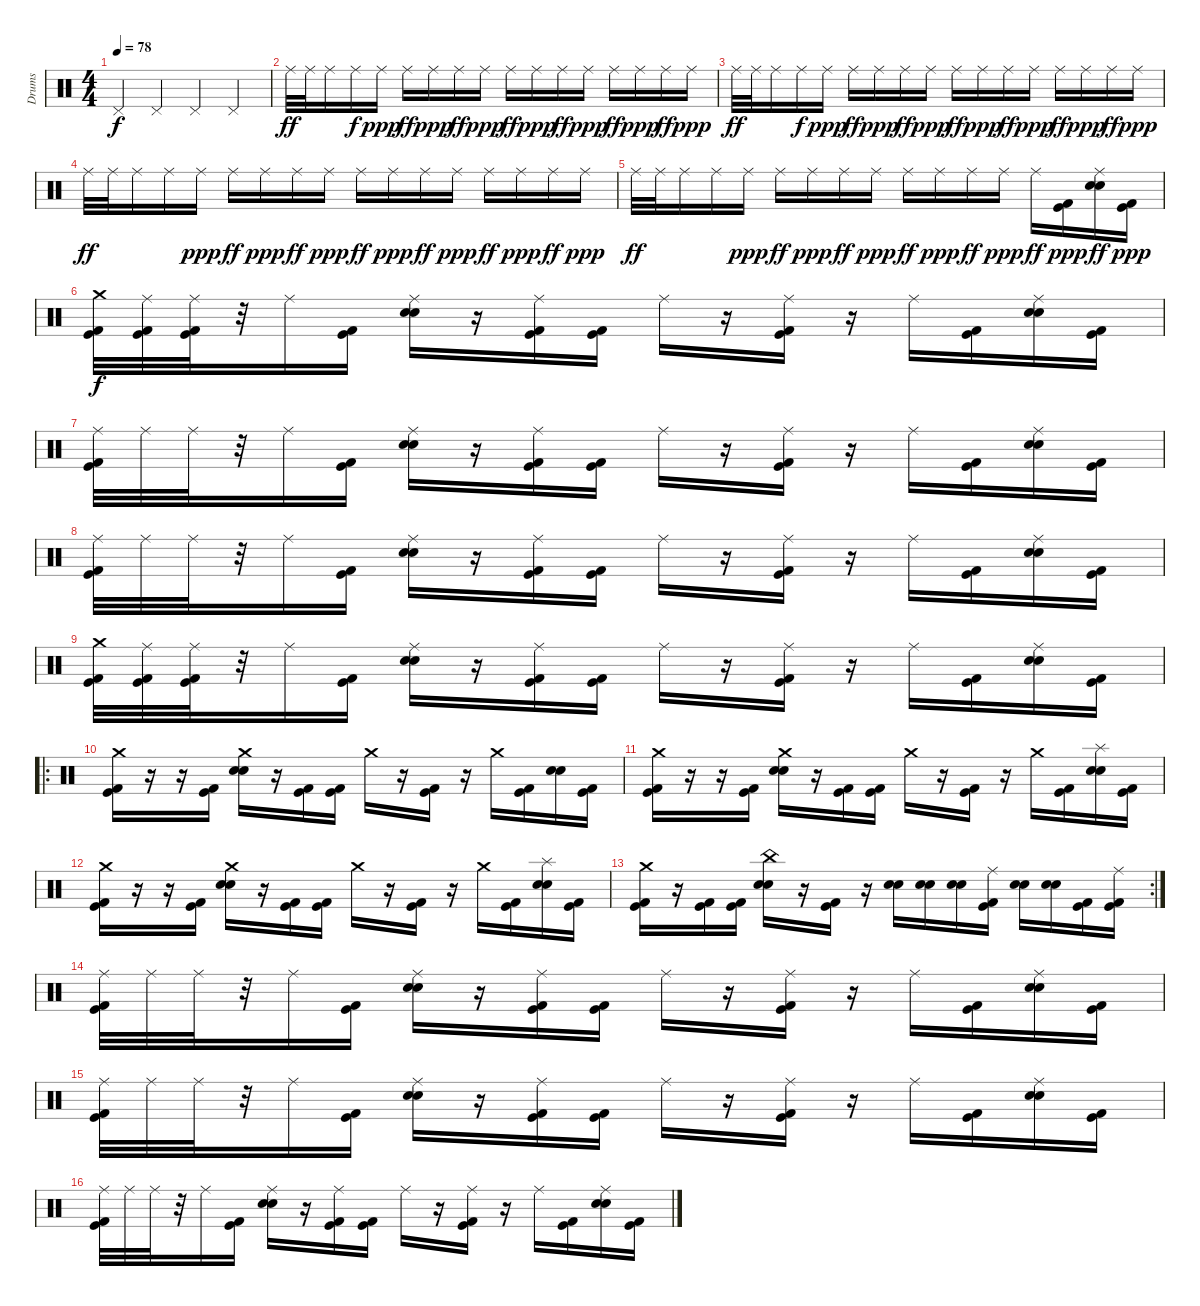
\track ("Drums" "Drums") {instrument percussion}
\staff {score}
\articulation defaults
\ts (4 4)
\tempo 78
\clef neutral
\ks c "Pedal Hi-Hat (hit)".4{dy f} "Pedal Hi-Hat (hit)".4 "Pedal Hi-Hat (hit)".4 "Pedal Hi-Hat (hit)".4
|
"Ride (middle)".32{dy ff} "Ride (middle)".32 "Ride (middle)".16 "Ride (middle)".16{dy f} "Ride (middle)".16{dy ppp} "Ride (middle)".16{dy ff} "Ride (middle)".16{dy ppp} "Ride (middle)".16{dy ff} "Ride (middle)".16{dy ppp} "Ride (middle)".16{dy ff} "Ride (middle)".16{dy ppp} "Ride (middle)".16{dy ff} "Ride (middle)".16{dy ppp} "Ride (middle)".16{dy ff} "Ride (middle)".16{dy ppp} "Ride (middle)".16{dy ff} "Ride (middle)".16{dy ppp} |
"Ride (middle)".32{dy ff} "Ride (middle)".32 "Ride (middle)".16 "Ride (middle)".16{dy f} "Ride (middle)".16{dy ppp} "Ride (middle)".16{dy ff} "Ride (middle)".16{dy ppp} "Ride (middle)".16{dy ff} "Ride (middle)".16{dy ppp} "Ride (middle)".16{dy ff} "Ride (middle)".16{dy ppp} "Ride (middle)".16{dy ff} "Ride (middle)".16{dy ppp} "Ride (middle)".16{dy ff} "Ride (middle)".16{dy ppp} "Ride (middle)".16{dy ff} "Ride (middle)".16{dy ppp} |
"Ride (middle)".32{dy ff} "Ride (middle)".32 "Ride (middle)".16 "Ride (middle)".16 "Ride (middle)".16{dy ppp} "Ride (middle)".16{dy ff} "Ride (middle)".16{dy ppp} "Ride (middle)".16{dy ff} "Ride (middle)".16{dy ppp} "Ride (middle)".16{dy ff} "Ride (middle)".16{dy ppp} "Ride (middle)".16{dy ff} "Ride (middle)".16{dy ppp} "Ride (middle)".16{dy ff} "Ride (middle)".16{dy ppp} "Ride (middle)".16{dy ff} "Ride (middle)".16{dy ppp} |
"Ride (middle)".32{dy ff} "Ride (middle)".32 "Ride (middle)".16 "Ride (middle)".16 "Ride (middle)".16{dy ppp} "Ride (middle)".16{dy ff} "Ride (middle)".16{dy ppp} "Ride (middle)".16{dy ff} "Ride (middle)".16{dy ppp} "Ride (middle)".16{dy ff} "Ride (middle)".16{dy ppp} "Ride (middle)".16{dy ff} "Ride (middle)".16{dy ppp} "Ride (middle)".16{dy ff} ("Kick (hit) 2" "Kick (hit)").16{dy ppp} ("Ride (middle)" "Snare (hit) 2" "Snare (hit) 2").16{dy ff} ("Kick (hit) 2" "Kick (hit)").16{dy ppp} |
("Crash medium (hit)" "Kick (hit)" "Kick (hit) 2").32{dy f} ("Ride (middle)" "Kick (hit)" "Kick (hit) 2").32 ("Ride (middle)" "Kick (hit)" "Kick (hit) 2").32 r.32 "Ride (middle)".16 ("Kick (hit)" "Kick (hit) 2").16 ("Ride (middle)" "Snare (hit) 2" "Snare (hit) 2").16 r.16 ("Ride (middle)" "Kick (hit)" "Kick (hit) 2").16 ("Kick (hit)" "Kick (hit) 2").16 "Ride (middle)".16 r.16 ("Ride (middle)" "Kick (hit)" "Kick (hit) 2").16 r.16 "Ride (middle)".16 ("Kick (hit)" "Kick (hit) 2").16 ("Ride (middle)" "Snare (hit) 2" "Snare (hit) 2").16 ("Kick (hit)" "Kick (hit) 2").16 |
("Ride (middle)" "Kick (hit)" "Kick (hit) 2").32 "Ride (middle)".32 "Ride (middle)".32 r.32 "Ride (middle)".16 ("Kick (hit)" "Kick (hit) 2").16 ("Ride (middle)" "Snare (hit) 2" "Snare (hit) 2").16 r.16 ("Ride (middle)" "Kick (hit)" "Kick (hit) 2").16 ("Kick (hit)" "Kick (hit) 2").16 "Ride (middle)".16 r.16 ("Ride (middle)" "Kick (hit)" "Kick (hit) 2").16 r.16 "Ride (middle)".16 ("Kick (hit)" "Kick (hit) 2").16 ("Ride (middle)" "Snare (hit) 2" "Snare (hit) 2").16 ("Kick (hit)" "Kick (hit) 2").16 |
("Ride (middle)" "Kick (hit)" "Kick (hit) 2").32 "Ride (middle)".32 "Ride (middle)".32 r.32 "Ride (middle)".16 ("Kick (hit)" "Kick (hit) 2").16 ("Ride (middle)" "Snare (hit) 2" "Snare (hit) 2").16 r.16 ("Ride (middle)" "Kick (hit)" "Kick (hit) 2").16 ("Kick (hit)" "Kick (hit) 2").16 "Ride (middle)".16 r.16 ("Ride (middle)" "Kick (hit)" "Kick (hit) 2").16 r.16 "Ride (middle)".16 ("Kick (hit)" "Kick (hit) 2").16 ("Ride (middle)" "Snare (hit) 2" "Snare (hit) 2").16 ("Kick (hit)" "Kick (hit) 2").16 |
("Crash medium (hit)" "Kick (hit)" "Kick (hit) 2").32 ("Ride (middle)" "Kick (hit)" "Kick (hit) 2").32 ("Ride (middle)" "Kick (hit)" "Kick (hit) 2").32 r.32 "Ride (middle)".16 ("Kick (hit)" "Kick (hit) 2").16 ("Ride (middle)" "Snare (hit) 2" "Snare (hit) 2").16 r.16 ("Ride (middle)" "Kick (hit)" "Kick (hit) 2").16 ("Kick (hit)" "Kick (hit) 2").16 "Ride (middle)".16 r.16 ("Ride (middle)" "Kick (hit)" "Kick (hit) 2").16 r.16 "Ride (middle)".16 ("Kick (hit)" "Kick (hit) 2").16 ("Ride (middle)" "Snare (hit) 2" "Snare (hit) 2").16 ("Kick (hit)" "Kick (hit) 2").16 |
\ro
("Crash medium (hit)" "Kick (hit)" "Kick (hit) 2").16 r.16 r.16 ("Kick (hit)" "Kick (hit) 2").16 ("Crash medium (hit)" "Snare (hit) 2" "Snare (hit) 2").16 r.16 ("Kick (hit)" "Kick (hit) 2").16 ("Kick (hit)" "Kick (hit) 2").16 "Crash medium (hit)".16 r.16 ("Kick (hit)" "Kick (hit) 2").16 r.16 "Crash medium (hit)".16 ("Kick (hit)" "Kick (hit) 2").16 ("Snare (hit) 2" "Snare (hit) 2").16 ("Kick (hit)" "Kick (hit) 2").16 |
("Crash medium (hit)" "Kick (hit)" "Kick (hit) 2").16 r.16 r.16 ("Kick (hit)" "Kick (hit) 2").16 ("Crash medium (hit)" "Snare (hit) 2" "Snare (hit) 2").16 r.16 ("Kick (hit)" "Kick (hit) 2").16 ("Kick (hit)" "Kick (hit) 2").16 "Crash medium (hit)".16 r.16 ("Kick (hit)" "Kick (hit) 2").16 r.16 "Crash medium (hit)".16 ("Kick (hit)" "Kick (hit) 2").16 ("Splash (hit)" "Snare (hit) 2" "Snare (hit) 2").16 ("Kick (hit)" "Kick (hit) 2").16 |
("Crash medium (hit)" "Kick (hit)" "Kick (hit) 2").16 r.16 r.16 ("Kick (hit)" "Kick (hit) 2").16 ("Crash medium (hit)" "Snare (hit) 2" "Snare (hit) 2").16 r.16 ("Kick (hit)" "Kick (hit) 2").16 ("Kick (hit)" "Kick (hit) 2").16 "Crash medium (hit)".16 r.16 ("Kick (hit)" "Kick (hit) 2").16 r.16 "Crash medium (hit)".16 ("Kick (hit)" "Kick (hit) 2").16 ("Splash (hit)" "Snare (hit) 2" "Snare (hit) 2").16 ("Kick (hit)" "Kick (hit) 2").16 |
\rc 2
("Crash medium (hit)" "Kick (hit)" "Kick (hit) 2").16 r.16 ("Kick (hit)" "Kick (hit) 2").16 ("Kick (hit)" "Kick (hit) 2").16 ("China (hit)" "Snare (hit) 2" "Snare (hit) 2").16 r.16 ("Kick (hit) 2" "Kick (hit)").16 r.16 ("Snare (hit) 2" "Snare (hit) 2").16 ("Snare (hit) 2" "Snare (hit) 2").16 ("Snare (hit) 2" "Snare (hit) 2").16 ("Ride (middle)" "Kick (hit) 2" "Kick (hit)").16 ("Snare (hit) 2" "Snare (hit) 2").16 ("Snare (hit) 2" "Snare (hit) 2").16 ("Kick (hit) 2" "Kick (hit)").16 ("Ride (middle)" "Kick (hit) 2" "Kick (hit)").16 |
("Ride (middle)" "Kick (hit)" "Kick (hit) 2").32 "Ride (middle)".32 "Ride (middle)".32 r.32 "Ride (middle)".16 ("Kick (hit)" "Kick (hit) 2").16 ("Ride (middle)" "Snare (hit) 2" "Snare (hit) 2").16 r.16 ("Ride (middle)" "Kick (hit)" "Kick (hit) 2").16 ("Kick (hit)" "Kick (hit) 2").16 "Ride (middle)".16 r.16 ("Ride (middle)" "Kick (hit)" "Kick (hit) 2").16 r.16 "Ride (middle)".16 ("Kick (hit)" "Kick (hit) 2").16 ("Ride (middle)" "Snare (hit) 2" "Snare (hit) 2").16 ("Kick (hit)" "Kick (hit) 2").16 |
("Ride (middle)" "Kick (hit)" "Kick (hit) 2").32 "Ride (middle)".32 "Ride (middle)".32 r.32 "Ride (middle)".16 ("Kick (hit)" "Kick (hit) 2").16 ("Ride (middle)" "Snare (hit) 2" "Snare (hit) 2").16 r.16 ("Ride (middle)" "Kick (hit)" "Kick (hit) 2").16 ("Kick (hit)" "Kick (hit) 2").16 "Ride (middle)".16 r.16 ("Ride (middle)" "Kick (hit)" "Kick (hit) 2").16 r.16 "Ride (middle)".16 ("Kick (hit)" "Kick (hit) 2").16 ("Ride (middle)" "Snare (hit) 2" "Snare (hit) 2").16 ("Kick (hit)" "Kick (hit) 2").16 |
("Ride (middle)" "Kick (hit)" "Kick (hit) 2").32 "Ride (middle)".32 "Ride (middle)".32 r.32 "Ride (middle)".16 ("Kick (hit)" "Kick (hit) 2").16 ("Ride (middle)" "Snare (hit) 2" "Snare (hit) 2").16 r.16 ("Ride (middle)" "Kick (hit)" "Kick (hit) 2").16 ("Kick (hit)" "Kick (hit) 2").16 "Ride (middle)".16 r.16 ("Ride (middle)" "Kick (hit)" "Kick (hit) 2").16 r.16 "Ride (middle)".16 ("Kick (hit)" "Kick (hit) 2").16 ("Ride (middle)" "Snare (hit) 2" "Snare (hit) 2").16 ("Kick (hit)" "Kick (hit) 2").16
